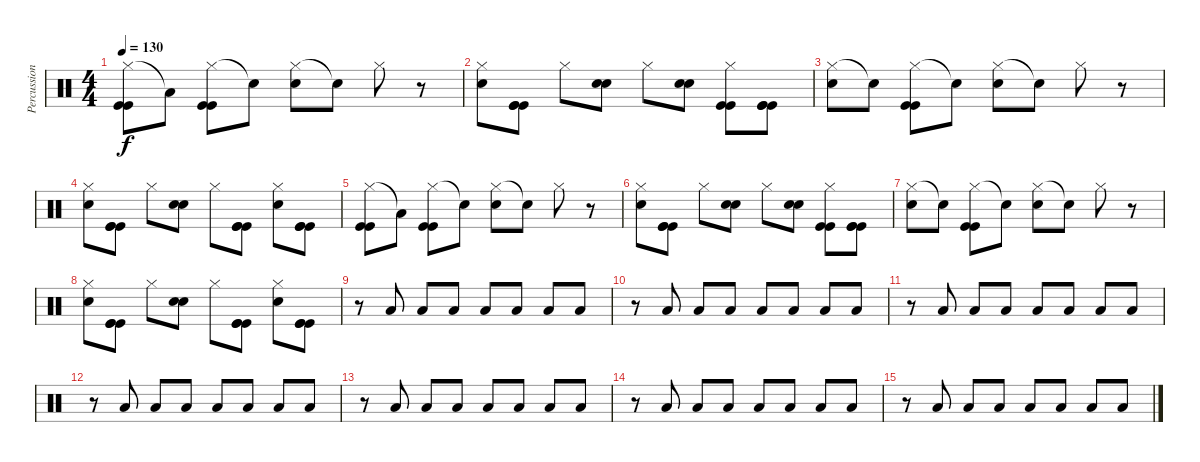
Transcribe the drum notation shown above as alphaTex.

\track ("Percussion" "Percussion") {instrument percussion}
\staff {score}
\articulation defaults
\ts (4 4)
\tempo 130
\clef neutral
\ks c
("Hi-Hat (closed)" "Kick (hit)" "Kick (hit)").8{dy f} "Low Tom (hit)"{t}.8 ("Hi-Hat (closed)" "Kick (hit)" "Kick (hit)").8 "Snare (hit)"{t}.8 ("Hi-Hat (closed)" "Electric Snare (hit)").8 "Snare (hit)"{t}.8 "Hi-Hat (closed)".8 r.8 |
("Hi-Hat (closed)" "Electric Snare (hit)").8 ("Kick (hit)" "Kick (hit)" "Kick (hit)").8 "Hi-Hat (closed)".8 ("Electric Snare (hit)" "Electric Snare (hit)").8 "Hi-Hat (closed)".8 ("Electric Snare (hit)" "Electric Snare (hit)").8 ("Hi-Hat (closed)" "Kick (hit)" "Kick (hit)").8 ("Kick (hit)" "Kick (hit)" "Kick (hit)").8 |
("Hi-Hat (closed)" "Electric Snare (hit)").8 "Snare (hit)"{t}.8 ("Hi-Hat (closed)" "Kick (hit)" "Kick (hit)").8 "Snare (hit)"{t}.8 ("Hi-Hat (closed)" "Electric Snare (hit)").8 "Snare (hit)"{t}.8 "Hi-Hat (closed)".8 r.8 |
("Hi-Hat (closed)" "Electric Snare (hit)").8 ("Kick (hit)" "Kick (hit)" "Kick (hit)").8 "Hi-Hat (closed)".8 ("Electric Snare (hit)" "Electric Snare (hit)").8 "Hi-Hat (closed)".8 ("Kick (hit)" "Kick (hit)" "Kick (hit)").8 ("Hi-Hat (closed)" "Electric Snare (hit)").8 ("Kick (hit)" "Kick (hit)" "Kick (hit)").8 |
("Hi-Hat (closed)" "Kick (hit)" "Kick (hit)").8 "Low Tom (hit)"{t}.8 ("Hi-Hat (closed)" "Kick (hit)" "Kick (hit)").8 "Snare (hit)"{t}.8 ("Hi-Hat (closed)" "Electric Snare (hit)").8 "Snare (hit)"{t}.8 "Hi-Hat (closed)".8 r.8 |
("Hi-Hat (closed)" "Electric Snare (hit)").8 ("Kick (hit)" "Kick (hit)" "Kick (hit)").8 "Hi-Hat (closed)".8 ("Electric Snare (hit)" "Electric Snare (hit)").8 "Hi-Hat (closed)".8 ("Electric Snare (hit)" "Electric Snare (hit)").8 ("Hi-Hat (closed)" "Kick (hit)" "Kick (hit)").8 ("Kick (hit)" "Kick (hit)" "Kick (hit)").8 |
("Hi-Hat (closed)" "Electric Snare (hit)").8 "Snare (hit)"{t}.8 ("Hi-Hat (closed)" "Kick (hit)" "Kick (hit)").8 "Snare (hit)"{t}.8 ("Hi-Hat (closed)" "Electric Snare (hit)").8 "Snare (hit)"{t}.8 "Hi-Hat (closed)".8 r.8 |
("Hi-Hat (closed)" "Electric Snare (hit)").8 ("Kick (hit)" "Kick (hit)" "Kick (hit)").8 "Hi-Hat (closed)".8 ("Electric Snare (hit)" "Electric Snare (hit)").8 "Hi-Hat (closed)".8 ("Kick (hit)" "Kick (hit)" "Kick (hit)").8 ("Hi-Hat (closed)" "Electric Snare (hit)").8 ("Kick (hit)" "Kick (hit)" "Kick (hit)").8 |
r.8 "Low Tom (hit)".8 "Low Tom (hit)".8 "Low Tom (hit)".8 "Low Tom (hit)".8 "Low Tom (hit)".8 "Low Tom (hit)".8 "Low Tom (hit)".8 |
r.8 "Low Tom (hit)".8 "Low Tom (hit)".8 "Low Tom (hit)".8 "Low Tom (hit)".8 "Low Tom (hit)".8 "Low Tom (hit)".8 "Low Tom (hit)".8 |
r.8 "Low Tom (hit)".8 "Low Tom (hit)".8 "Low Tom (hit)".8 "Low Tom (hit)".8 "Low Tom (hit)".8 "Low Tom (hit)".8 "Low Tom (hit)".8 |
r.8 "Low Tom (hit)".8 "Low Tom (hit)".8 "Low Tom (hit)".8 "Low Tom (hit)".8 "Low Tom (hit)".8 "Low Tom (hit)".8 "Low Tom (hit)".8 |
r.8 "Low Tom (hit)".8 "Low Tom (hit)".8 "Low Tom (hit)".8 "Low Tom (hit)".8 "Low Tom (hit)".8 "Low Tom (hit)".8 "Low Tom (hit)".8 |
r.8 "Low Tom (hit)".8 "Low Tom (hit)".8 "Low Tom (hit)".8 "Low Tom (hit)".8 "Low Tom (hit)".8 "Low Tom (hit)".8 "Low Tom (hit)".8 |
r.8 "Low Tom (hit)".8 "Low Tom (hit)".8 "Low Tom (hit)".8 "Low Tom (hit)".8 "Low Tom (hit)".8 "Low Tom (hit)".8 "Low Tom (hit)".8
